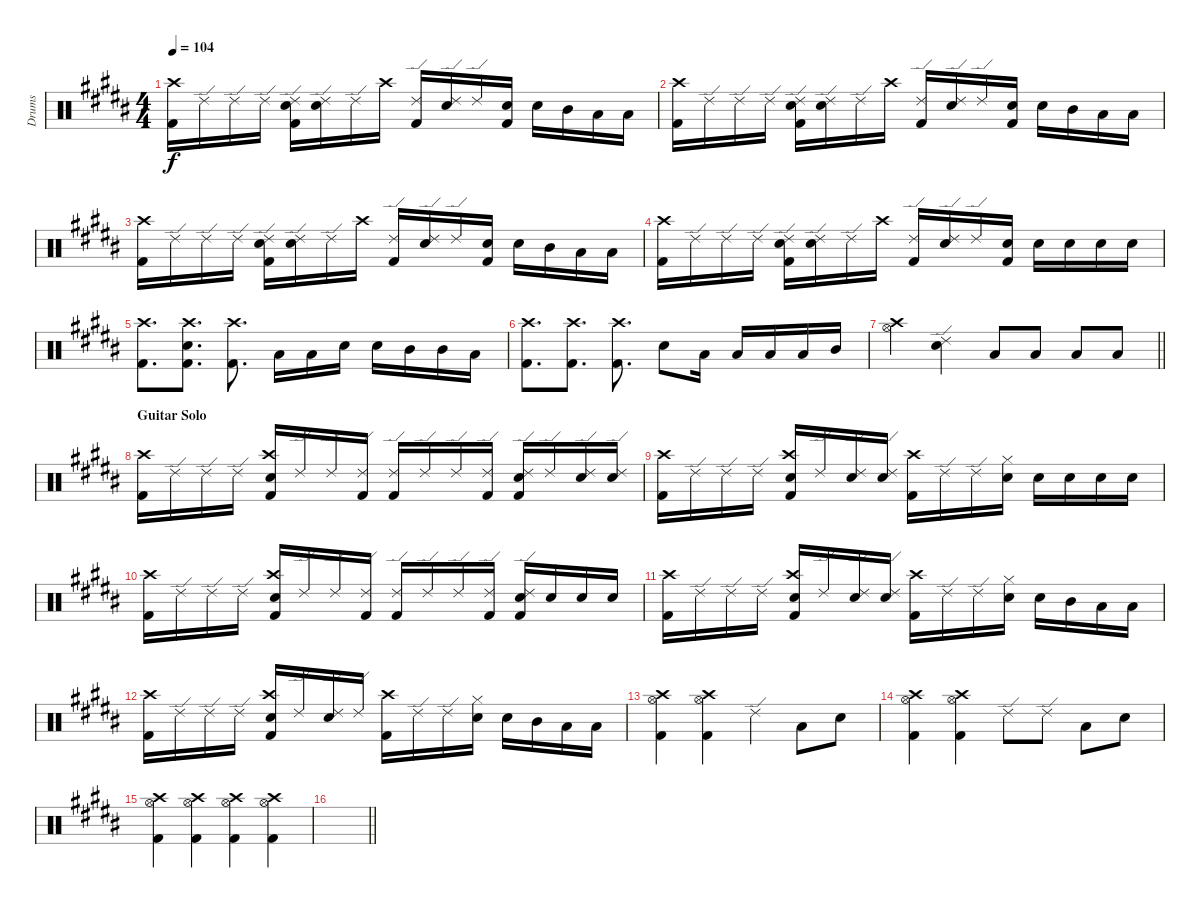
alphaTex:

\track ("Drums" "Drums") {instrument percussion}
\staff {score}
\articulation defaults
\ts (4 4)
\tempo 104
\clef neutral
\ks b
("Kick (hit) 2" "Crash high (hit)").16{dy f} "Ride (edge) 2".16 "Ride (edge) 2".16 "Ride (edge) 2".16 ("Electric Snare (hit)" "Kick (hit) 2" "Ride (edge) 2").16 ("Electric Snare (hit)" "Ride (edge) 2").16 "Ride (edge) 2".16 "Crash high (hit)".16 ("Kick (hit) 2" "Ride (edge) 2").16 ("Electric Snare (hit)" "Ride (edge) 2").16 "Ride (edge) 2".16 ("Electric Snare (hit)" "Kick (hit) 2").16 "Electric Snare (hit)".16 "Mid Tom (hit)".16 "Low Tom (hit)".16 "Low Floor Tom (hit)".16 |
("Kick (hit) 2" "Crash high (hit)").16 "Ride (edge) 2".16 "Ride (edge) 2".16 "Ride (edge) 2".16 ("Electric Snare (hit)" "Kick (hit) 2" "Ride (edge) 2").16 ("Electric Snare (hit)" "Ride (edge) 2").16 "Ride (edge) 2".16 "Crash high (hit)".16 ("Kick (hit) 2" "Ride (edge) 2").16 ("Electric Snare (hit)" "Ride (edge) 2").16 "Ride (edge) 2".16 ("Electric Snare (hit)" "Kick (hit) 2").16 "Electric Snare (hit)".16 "Mid Tom (hit)".16 "Low Tom (hit)".16 "Low Floor Tom (hit)".16 |
("Kick (hit) 2" "Crash high (hit)").16 "Ride (edge) 2".16 "Ride (edge) 2".16 "Ride (edge) 2".16 ("Electric Snare (hit)" "Kick (hit) 2" "Ride (edge) 2").16 ("Electric Snare (hit)" "Ride (edge) 2").16 "Ride (edge) 2".16 "Crash high (hit)".16 ("Kick (hit) 2" "Ride (edge) 2").16 ("Electric Snare (hit)" "Ride (edge) 2").16 "Ride (edge) 2".16 ("Electric Snare (hit)" "Kick (hit) 2").16 "Electric Snare (hit)".16 "Mid Tom (hit)".16 "Low Tom (hit)".16 "Low Floor Tom (hit)".16 |
("Kick (hit) 2" "Crash high (hit)").16 "Ride (edge) 2".16 "Ride (edge) 2".16 "Ride (edge) 2".16 ("Electric Snare (hit)" "Kick (hit) 2" "Ride (edge) 2").16 ("Electric Snare (hit)" "Ride (edge) 2").16 "Ride (edge) 2".16 "Crash high (hit)".16 ("Kick (hit) 2" "Ride (edge) 2").16 ("Electric Snare (hit)" "Ride (edge) 2").16 "Ride (edge) 2".16 ("Electric Snare (hit)" "Kick (hit) 2").16 "Electric Snare (hit)".16 "Electric Snare (hit)".16 "Electric Snare (hit)".16 "Electric Snare (hit)".16 |
("Kick (hit) 2" "Crash high (hit)").8{d} ("Electric Snare (hit)" "Kick (hit) 2" "Crash high (hit)").8{d} ("Kick (hit) 2" "Crash high (hit)").8{d} "Low Floor Tom (hit)".16 "Low Floor Tom (hit)".16 "Electric Snare (hit)".16 "Electric Snare (hit)".16 "Mid Tom (hit)".16 "Mid Tom (hit)".16 "Low Tom (hit)".16 |
("Kick (hit) 2" "Crash high (hit)").8{d} ("Kick (hit) 2" "Crash high (hit)").8{d} ("Kick (hit) 2" "Crash high (hit)").8{d} "Electric Snare (hit)".8 "Low Floor Tom (hit)".16 "Low Floor Tom (hit)".16 "Low Tom (hit)".16 "Low Tom (hit)".16 "Mid Tom (hit)".16 |
\barLineRight lightlight
("Hi-Hat (open)" "Crash high (hit)").4 ("Electric Snare (hit)" "Ride (edge) 2").4 "Low Floor Tom (hit)".8 "Low Floor Tom (hit)".8 "Low Floor Tom (hit)".8 "Low Floor Tom (hit)".8 |
\section ("" "Guitar Solo")
("Kick (hit) 2" "Crash high (hit)").16 "Ride (edge) 2".16 "Ride (edge) 2".16 "Ride (edge) 2".16 ("Electric Snare (hit)" "Kick (hit) 2" "Crash high (hit)").16 "Ride (edge) 2".16 "Ride (edge) 2".16 ("Kick (hit) 2" "Ride (edge) 2").16 ("Kick (hit) 2" "Ride (edge) 2").16 "Ride (edge) 2".16 "Ride (edge) 2".16 ("Kick (hit) 2" "Ride (edge) 2").16 ("Electric Snare (hit)" "Kick (hit) 2" "Ride (edge) 2").16 "Ride (edge) 2".16 ("Electric Snare (hit)" "Ride (edge) 2").16 ("Electric Snare (hit)" "Ride (edge) 2").16 |
("Kick (hit) 2" "Crash high (hit)").16 "Ride (edge) 2".16 "Ride (edge) 2".16 "Ride (edge) 2".16 ("Electric Snare (hit)" "Kick (hit) 2" "Crash high (hit)").16 "Ride (edge) 2".16 ("Electric Snare (hit)" "Ride (edge) 2").16 ("Electric Snare (hit)" "Ride (edge) 2").16 ("Kick (hit) 2" "Crash high (hit)").16 "Ride (edge) 2".16 "Ride (edge) 2".16 ("Electric Snare (hit)" "Hi-Hat (closed)").16 "Electric Snare (hit)".16 "Electric Snare (hit)".16 "Electric Snare (hit)".16 "Electric Snare (hit)".16 |
("Kick (hit) 2" "Crash high (hit)").16 "Ride (edge) 2".16 "Ride (edge) 2".16 "Ride (edge) 2".16 ("Electric Snare (hit)" "Kick (hit) 2" "Crash high (hit)").16 "Ride (edge) 2".16 "Ride (edge) 2".16 ("Kick (hit) 2" "Ride (edge) 2").16 ("Kick (hit) 2" "Ride (edge) 2").16 "Ride (edge) 2".16 "Ride (edge) 2".16 ("Kick (hit) 2" "Ride (edge) 2").16 ("Electric Snare (hit)" "Kick (hit) 2" "Ride (edge) 2").16 "Electric Snare (hit)".16 "Electric Snare (hit)".16 "Electric Snare (hit)".16 |
("Kick (hit) 2" "Crash high (hit)").16 "Ride (edge) 2".16 "Ride (edge) 2".16 "Ride (edge) 2".16 ("Electric Snare (hit)" "Kick (hit) 2" "Crash high (hit)").16 "Ride (edge) 2".16 ("Electric Snare (hit)" "Ride (edge) 2").16 ("Electric Snare (hit)" "Ride (edge) 2").16 ("Kick (hit) 2" "Crash high (hit)").16 "Ride (edge) 2".16 "Ride (edge) 2".16 ("Electric Snare (hit)" "Hi-Hat (closed)").16 "Electric Snare (hit)".16 "Mid Tom (hit)".16 "Low Tom (hit)".16 "Low Floor Tom (hit)".16 |
("Kick (hit) 2" "Crash high (hit)").16 "Ride (edge) 2".16 "Ride (edge) 2".16 "Ride (edge) 2".16 ("Electric Snare (hit)" "Kick (hit) 2" "Crash high (hit)").16 "Ride (edge) 2".16 ("Electric Snare (hit)" "Ride (edge) 2").16 "Ride (edge) 2".16 ("Kick (hit) 2" "Crash high (hit)").16 "Ride (edge) 2".16 "Ride (edge) 2".16 ("Electric Snare (hit)" "Hi-Hat (closed)").16 "Electric Snare (hit)".16 "Mid Tom (hit)".16 "Low Tom (hit)".16 "Low Floor Tom (hit)".16 |
("Hi-Hat (open)" "Kick (hit) 2" "Crash high (hit)").4 ("Hi-Hat (open)" "Kick (hit) 2" "Crash high (hit)").4 "Ride (edge) 2".4 "Low Floor Tom (hit)".8 "Electric Snare (hit)".8 |
("Hi-Hat (open)" "Kick (hit) 2" "Crash high (hit)").4 ("Hi-Hat (open)" "Kick (hit) 2" "Crash high (hit)").4 "Ride (edge) 2".8 "Ride (edge) 2".8 "Low Floor Tom (hit)".8 "Electric Snare (hit)".8 |
("Hi-Hat (open)" "Kick (hit) 2" "Crash high (hit)").4 ("Hi-Hat (open)" "Kick (hit) 2" "Crash high (hit)").4 ("Hi-Hat (open)" "Kick (hit) 2" "Crash high (hit)").4 ("Hi-Hat (open)" "Kick (hit) 2" "Crash high (hit)").4 |
\barLineRight lightlight
